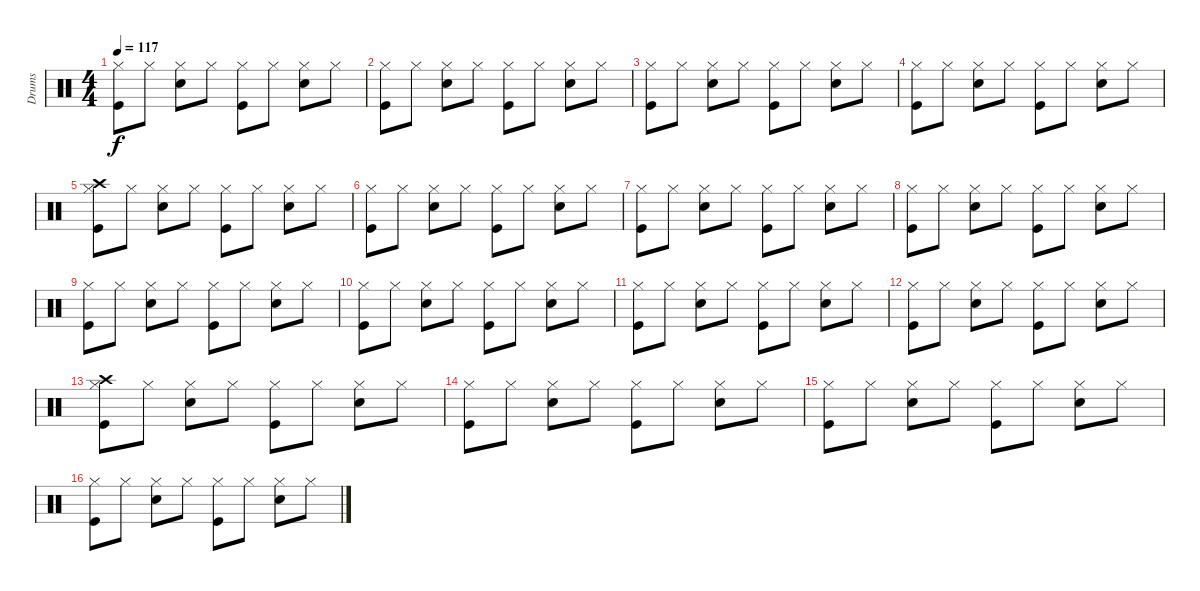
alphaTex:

\track ("Drums" "Drums") {instrument percussion}
\staff {score}
\articulation defaults
\ts (4 4)
\tempo 117
\clef neutral
\ks c
("Kick (hit)" "Hi-Hat (closed)").8{dy f} "Hi-Hat (closed)".8 ("Hi-Hat (closed)" "Snare (hit) 2").8 "Hi-Hat (closed)".8 ("Kick (hit)" "Hi-Hat (closed)").8 "Hi-Hat (closed)".8 ("Hi-Hat (closed)" "Snare (hit) 2").8 "Hi-Hat (closed)".8 |
("Kick (hit)" "Hi-Hat (closed)").8 "Hi-Hat (closed)".8 ("Hi-Hat (closed)" "Snare (hit) 2").8 "Hi-Hat (closed)".8 ("Kick (hit)" "Hi-Hat (closed)").8 "Hi-Hat (closed)".8 ("Hi-Hat (closed)" "Snare (hit) 2").8 "Hi-Hat (closed)".8 |
("Kick (hit)" "Hi-Hat (closed)").8 "Hi-Hat (closed)".8 ("Hi-Hat (closed)" "Snare (hit) 2").8 "Hi-Hat (closed)".8 ("Kick (hit)" "Hi-Hat (closed)").8 "Hi-Hat (closed)".8 ("Hi-Hat (closed)" "Snare (hit) 2").8 "Hi-Hat (closed)".8 |
("Kick (hit)" "Hi-Hat (closed)").8 "Hi-Hat (closed)".8 ("Hi-Hat (closed)" "Snare (hit) 2").8 "Hi-Hat (closed)".8 ("Kick (hit)" "Hi-Hat (closed)").8 "Hi-Hat (closed)".8 ("Hi-Hat (closed)" "Snare (hit) 2").8 "Hi-Hat (closed)".8 |
("Kick (hit)" "Hi-Hat (closed)" "Crash high (hit)").8 "Hi-Hat (closed)".8 ("Hi-Hat (closed)" "Snare (hit) 2").8 "Hi-Hat (closed)".8 ("Kick (hit)" "Hi-Hat (closed)").8 "Hi-Hat (closed)".8 ("Hi-Hat (closed)" "Snare (hit) 2").8 "Hi-Hat (closed)".8 |
("Kick (hit)" "Hi-Hat (closed)").8 "Hi-Hat (closed)".8 ("Hi-Hat (closed)" "Snare (hit) 2").8 "Hi-Hat (closed)".8 ("Kick (hit)" "Hi-Hat (closed)").8 "Hi-Hat (closed)".8 ("Hi-Hat (closed)" "Snare (hit) 2").8 "Hi-Hat (closed)".8 |
("Kick (hit)" "Hi-Hat (closed)").8 "Hi-Hat (closed)".8 ("Hi-Hat (closed)" "Snare (hit) 2").8 "Hi-Hat (closed)".8 ("Kick (hit)" "Hi-Hat (closed)").8 "Hi-Hat (closed)".8 ("Hi-Hat (closed)" "Snare (hit) 2").8 "Hi-Hat (closed)".8 |
("Kick (hit)" "Hi-Hat (closed)").8 "Hi-Hat (closed)".8 ("Hi-Hat (closed)" "Snare (hit) 2").8 "Hi-Hat (closed)".8 ("Kick (hit)" "Hi-Hat (closed)").8 "Hi-Hat (closed)".8 ("Hi-Hat (closed)" "Snare (hit) 2").8 "Hi-Hat (closed)".8 |
("Kick (hit)" "Hi-Hat (closed)").8 "Hi-Hat (closed)".8 ("Hi-Hat (closed)" "Snare (hit) 2").8 "Hi-Hat (closed)".8 ("Kick (hit)" "Hi-Hat (closed)").8 "Hi-Hat (closed)".8 ("Hi-Hat (closed)" "Snare (hit) 2").8 "Hi-Hat (closed)".8 |
("Kick (hit)" "Hi-Hat (closed)").8 "Hi-Hat (closed)".8 ("Hi-Hat (closed)" "Snare (hit) 2").8 "Hi-Hat (closed)".8 ("Kick (hit)" "Hi-Hat (closed)").8 "Hi-Hat (closed)".8 ("Hi-Hat (closed)" "Snare (hit) 2").8 "Hi-Hat (closed)".8 |
("Kick (hit)" "Hi-Hat (closed)").8 "Hi-Hat (closed)".8 ("Hi-Hat (closed)" "Snare (hit) 2").8 "Hi-Hat (closed)".8 ("Kick (hit)" "Hi-Hat (closed)").8 "Hi-Hat (closed)".8 ("Hi-Hat (closed)" "Snare (hit) 2").8 "Hi-Hat (closed)".8 |
("Kick (hit)" "Hi-Hat (closed)").8 "Hi-Hat (closed)".8 ("Hi-Hat (closed)" "Snare (hit) 2").8 "Hi-Hat (closed)".8 ("Kick (hit)" "Hi-Hat (closed)").8 "Hi-Hat (closed)".8 ("Hi-Hat (closed)" "Snare (hit) 2").8 "Hi-Hat (closed)".8 |
("Kick (hit)" "Hi-Hat (closed)" "Crash high (hit)").8 "Hi-Hat (closed)".8 ("Hi-Hat (closed)" "Snare (hit) 2").8 "Hi-Hat (closed)".8 ("Kick (hit)" "Hi-Hat (closed)").8 "Hi-Hat (closed)".8 ("Hi-Hat (closed)" "Snare (hit) 2").8 "Hi-Hat (closed)".8 |
("Kick (hit)" "Hi-Hat (closed)").8 "Hi-Hat (closed)".8 ("Hi-Hat (closed)" "Snare (hit) 2").8 "Hi-Hat (closed)".8 ("Kick (hit)" "Hi-Hat (closed)").8 "Hi-Hat (closed)".8 ("Hi-Hat (closed)" "Snare (hit) 2").8 "Hi-Hat (closed)".8 |
("Kick (hit)" "Hi-Hat (closed)").8 "Hi-Hat (closed)".8 ("Hi-Hat (closed)" "Snare (hit) 2").8 "Hi-Hat (closed)".8 ("Kick (hit)" "Hi-Hat (closed)").8 "Hi-Hat (closed)".8 ("Hi-Hat (closed)" "Snare (hit) 2").8 "Hi-Hat (closed)".8 |
("Kick (hit)" "Hi-Hat (closed)").8 "Hi-Hat (closed)".8 ("Hi-Hat (closed)" "Snare (hit) 2").8 "Hi-Hat (closed)".8 ("Kick (hit)" "Hi-Hat (closed)").8 "Hi-Hat (closed)".8 ("Hi-Hat (closed)" "Snare (hit) 2").8 "Hi-Hat (closed)".8
